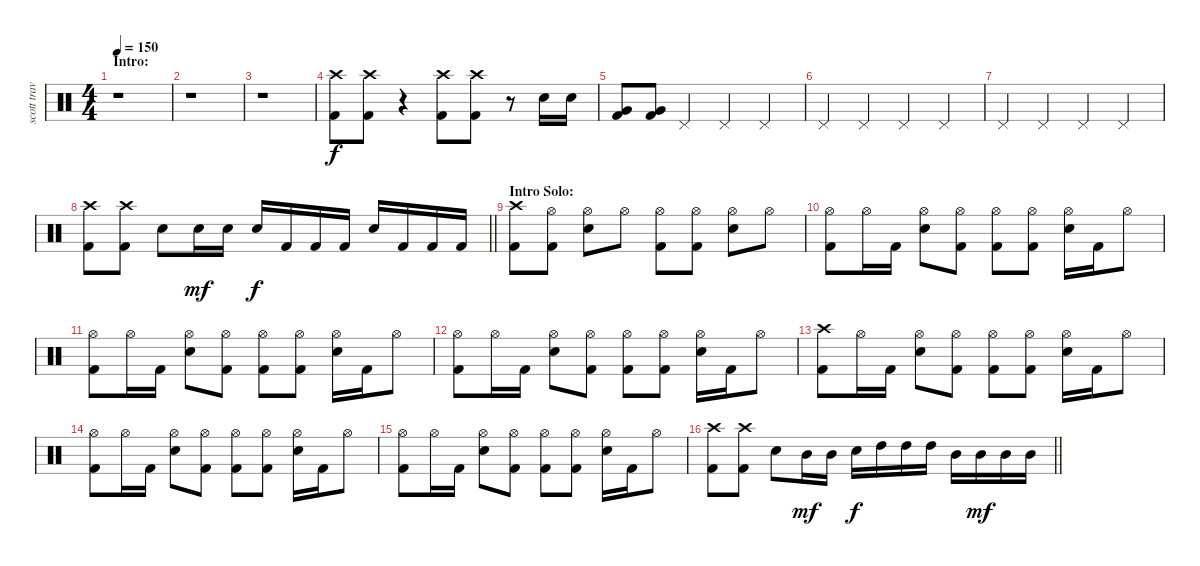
\track ("scott travis" "scott trav") {instrument percussion}
\staff {score}
\articulation defaults
\ts (4 4)
\section ("" "Intro:")
\tempo 150
\clef neutral
\ks c
r.1{dy f} |
r.1 |
r.1 |
("Crash high (hit)" "Kick (hit) 2").8 ("Crash high (hit)" "Kick (hit) 2").8 r.4 ("Crash high (hit)" "Kick (hit) 2").8 ("Crash high (hit)" "Kick (hit) 2").8 r.8 "Snare (hit) 2".16 "Snare (hit) 2".16 |
("Very Low Tom (hit)" "Kick (hit) 2").8 ("Very Low Tom (hit)" "Kick (hit) 2").8 "Pedal Hi-Hat (hit)".4 "Pedal Hi-Hat (hit)".4 "Pedal Hi-Hat (hit)".4 |
"Pedal Hi-Hat (hit)".4 "Pedal Hi-Hat (hit)".4 "Pedal Hi-Hat (hit)".4 "Pedal Hi-Hat (hit)".4 |
"Pedal Hi-Hat (hit)".4 "Pedal Hi-Hat (hit)".4 "Pedal Hi-Hat (hit)".4 "Pedal Hi-Hat (hit)".4 |
\barLineRight lightlight
("Crash high (hit)" "Kick (hit) 2").8 ("Crash high (hit)" "Kick (hit) 2").8 "Snare (hit) 2".8 "Snare (hit) 2".16{dy mf} "Snare (hit) 2".16 "Snare (hit) 2".16{dy f} "Kick (hit) 2".16 "Kick (hit) 2".16 "Kick (hit) 2".16 "Snare (hit) 2".16 "Kick (hit) 2".16 "Kick (hit) 2".16 "Kick (hit) 2".16 |
\section ("" "Intro Solo:")
("Crash high (hit)" "Kick (hit) 2").8 ("Hi-Hat (open)" "Kick (hit) 2").8 ("Hi-Hat (open)" "Snare (hit) 2").8 "Hi-Hat (open)".8 ("Hi-Hat (open)" "Kick (hit) 2").8 ("Hi-Hat (open)" "Kick (hit) 2").8 ("Hi-Hat (open)" "Snare (hit) 2").8 "Hi-Hat (open)".8 |
("Hi-Hat (open)" "Kick (hit) 2").8 "Hi-Hat (open)".16 "Kick (hit) 2".16 ("Hi-Hat (open)" "Snare (hit) 2").8 ("Hi-Hat (open)" "Kick (hit) 2").8 ("Hi-Hat (open)" "Kick (hit) 2").8 ("Hi-Hat (open)" "Kick (hit) 2").8 ("Hi-Hat (open)" "Snare (hit) 2").16 "Kick (hit) 2".16 "Hi-Hat (open)".8 |
("Hi-Hat (open)" "Kick (hit) 2").8 "Hi-Hat (open)".16 "Kick (hit) 2".16 ("Hi-Hat (open)" "Snare (hit) 2").8 ("Hi-Hat (open)" "Kick (hit) 2").8 ("Hi-Hat (open)" "Kick (hit) 2").8 ("Hi-Hat (open)" "Kick (hit) 2").8 ("Hi-Hat (open)" "Snare (hit) 2").16 "Kick (hit) 2".16 "Hi-Hat (open)".8 |
("Hi-Hat (open)" "Kick (hit) 2").8 "Hi-Hat (open)".16 "Kick (hit) 2".16 ("Hi-Hat (open)" "Snare (hit) 2").8 ("Hi-Hat (open)" "Kick (hit) 2").8 ("Hi-Hat (open)" "Kick (hit) 2").8 ("Hi-Hat (open)" "Kick (hit) 2").8 ("Hi-Hat (open)" "Snare (hit) 2").16 "Kick (hit) 2".16 "Hi-Hat (open)".8 |
("Crash high (hit)" "Kick (hit) 2").8 "Hi-Hat (open)".16 "Kick (hit) 2".16 ("Hi-Hat (open)" "Snare (hit) 2").8 ("Hi-Hat (open)" "Kick (hit) 2").8 ("Hi-Hat (open)" "Kick (hit) 2").8 ("Hi-Hat (open)" "Kick (hit) 2").8 ("Hi-Hat (open)" "Snare (hit) 2").16 "Kick (hit) 2".16 "Hi-Hat (open)".8 |
("Hi-Hat (open)" "Kick (hit) 2").8 "Hi-Hat (open)".16 "Kick (hit) 2".16 ("Hi-Hat (open)" "Snare (hit) 2").8 ("Hi-Hat (open)" "Kick (hit) 2").8 ("Hi-Hat (open)" "Kick (hit) 2").8 ("Hi-Hat (open)" "Kick (hit) 2").8 ("Hi-Hat (open)" "Snare (hit) 2").16 "Kick (hit) 2".16 "Hi-Hat (open)".8 |
("Hi-Hat (open)" "Kick (hit) 2").8 "Hi-Hat (open)".16 "Kick (hit) 2".16 ("Hi-Hat (open)" "Snare (hit) 2").8 ("Hi-Hat (open)" "Kick (hit) 2").8 ("Hi-Hat (open)" "Kick (hit) 2").8 ("Hi-Hat (open)" "Kick (hit) 2").8 ("Hi-Hat (open)" "Snare (hit) 2").16 "Kick (hit) 2".16 "Hi-Hat (open)".8 |
\barLineRight lightlight
("Crash high (hit)" "Kick (hit) 2").8 ("Crash high (hit)" "Kick (hit) 2").8 "Snare (hit) 2".8 "Mid Tom (hit)".16{dy mf} "Mid Tom (hit)".16 "Snare (hit) 2".16{dy f} "High Tom (hit)".16 "High Tom (hit)".16 "High Tom (hit)".16 "Mid Tom (hit)".16 "Mid Tom (hit)".16{dy mf} "Mid Tom (hit)".16 "Mid Tom (hit)".16
